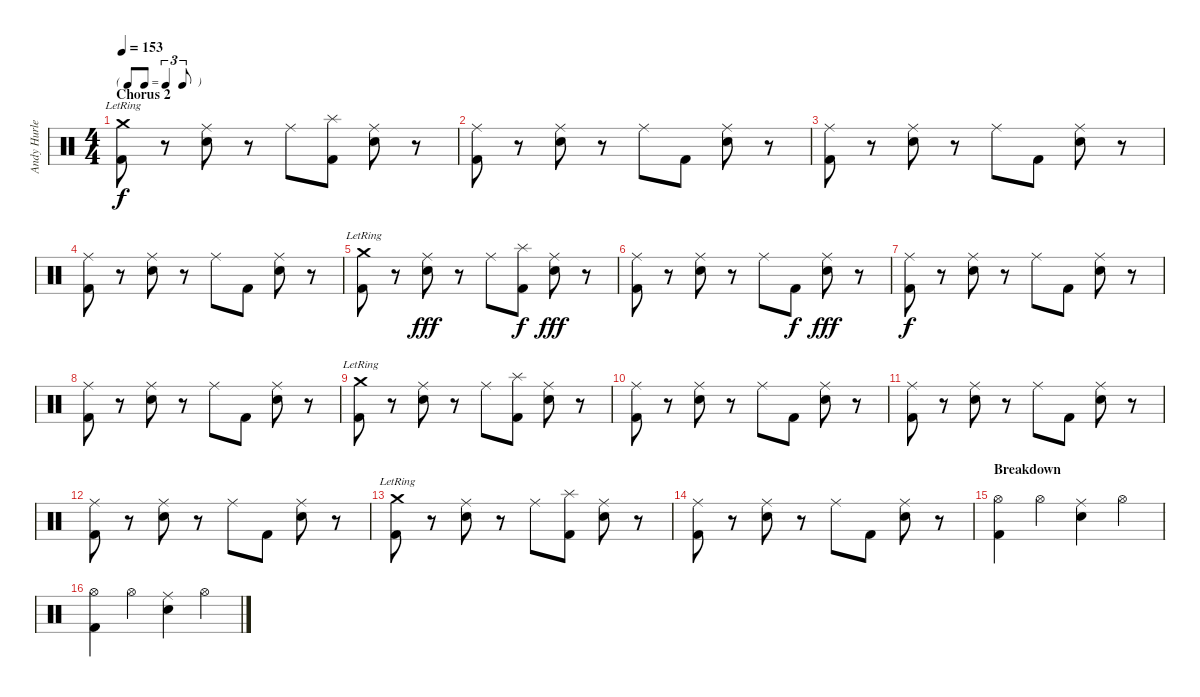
\track ("Andy Hurley" "Andy Hurle") {instrument percussion}
\staff {score}
\articulation defaults
\ts (4 4)
\tf triplet8th
\section ("" "Chorus 2")
\tempo 153
\clef neutral
\ks c
("Crash medium (hit)"{lr} "Kick (hit) 2").8{dy f} r.8 ("Ride (middle)" "Electric Snare (hit)").8 r.8 "Ride (middle)".8 ("Splash (hit)" "Kick (hit) 2").8 ("Ride (middle)" "Electric Snare (hit)").8 r.8 |
("Ride (middle)" "Kick (hit) 2").8 r.8 ("Ride (middle)" "Electric Snare (hit)").8 r.8 "Ride (middle)".8 "Kick (hit) 2".8 ("Ride (middle)" "Electric Snare (hit)").8 r.8 |
("Ride (middle)" "Kick (hit) 2").8 r.8 ("Ride (middle)" "Electric Snare (hit)").8 r.8 "Ride (middle)".8 "Kick (hit) 2".8 ("Ride (middle)" "Electric Snare (hit)").8 r.8 |
("Ride (middle)" "Kick (hit) 2").8 r.8 ("Ride (middle)" "Electric Snare (hit)").8 r.8 "Ride (middle)".8 "Kick (hit) 2".8 ("Ride (middle)" "Electric Snare (hit)").8 r.8 |
("Crash medium (hit)"{lr} "Kick (hit) 2").8 r.8 ("Ride (middle)" "Electric Snare (hit)").8{dy fff} r.8 "Ride (middle)".8 ("Splash (hit)" "Kick (hit) 2").8{dy f} ("Ride (middle)" "Electric Snare (hit)").8{dy fff} r.8 |
("Ride (middle)" "Kick (hit) 2").8 r.8 ("Ride (middle)" "Electric Snare (hit)").8 r.8 "Ride (middle)".8 "Kick (hit) 2".8{dy f} ("Ride (middle)" "Electric Snare (hit)").8{dy fff} r.8 |
("Ride (middle)" "Kick (hit) 2").8{dy f} r.8 ("Ride (middle)" "Electric Snare (hit)").8 r.8 "Ride (middle)".8 "Kick (hit) 2".8 ("Ride (middle)" "Electric Snare (hit)").8 r.8 |
("Ride (middle)" "Kick (hit) 2").8 r.8 ("Ride (middle)" "Electric Snare (hit)").8 r.8 "Ride (middle)".8 "Kick (hit) 2".8 ("Ride (middle)" "Electric Snare (hit)").8 r.8 |
("Crash medium (hit)"{lr} "Kick (hit) 2").8 r.8 ("Ride (middle)" "Electric Snare (hit)").8 r.8 "Ride (middle)".8 ("Splash (hit)" "Kick (hit) 2").8 ("Ride (middle)" "Electric Snare (hit)").8 r.8 |
("Ride (middle)" "Kick (hit) 2").8 r.8 ("Ride (middle)" "Electric Snare (hit)").8 r.8 "Ride (middle)".8 "Kick (hit) 2".8 ("Ride (middle)" "Electric Snare (hit)").8 r.8 |
("Ride (middle)" "Kick (hit) 2").8 r.8 ("Ride (middle)" "Electric Snare (hit)").8 r.8 "Ride (middle)".8 "Kick (hit) 2".8 ("Ride (middle)" "Electric Snare (hit)").8 r.8 |
("Ride (middle)" "Kick (hit) 2").8 r.8 ("Ride (middle)" "Electric Snare (hit)").8 r.8 "Ride (middle)".8 "Kick (hit) 2".8 ("Ride (middle)" "Electric Snare (hit)").8 r.8 |
("Crash medium (hit)"{lr} "Kick (hit) 2").8 r.8 ("Ride (middle)" "Electric Snare (hit)").8 r.8 "Ride (middle)".8 ("Splash (hit)" "Kick (hit) 2").8 ("Ride (middle)" "Electric Snare (hit)").8 r.8 |
("Ride (middle)" "Kick (hit) 2").8 r.8 ("Ride (middle)" "Electric Snare (hit)").8 r.8 "Ride (middle)".8 "Kick (hit) 2".8 ("Ride (middle)" "Electric Snare (hit)").8 r.8 |
\section ("" "Breakdown")
("Hi-Hat (open)" "Kick (hit) 2").4 "Hi-Hat (open)".4 ("Electric Snare (hit)" "Ride (middle)").4 "Hi-Hat (open)".4 |
("Hi-Hat (open)" "Kick (hit) 2").4 "Hi-Hat (open)".4 ("Electric Snare (hit)" "Ride (middle)").4 "Hi-Hat (open)".4
